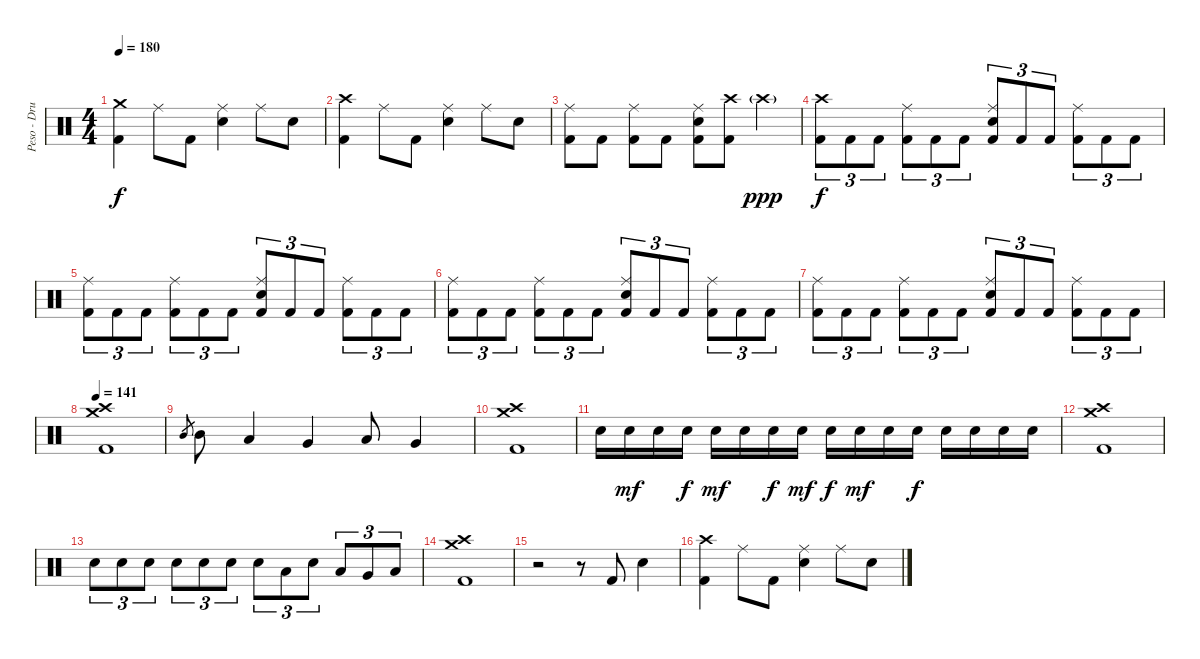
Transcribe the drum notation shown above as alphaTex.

\track ("Peso - Drums" "Peso - Dru") {instrument percussion}
\staff {score}
\articulation defaults
\ts (4 4)
\tempo 180
\clef neutral
\ks c
("Crash medium (hit)" "Kick (hit) 2").4{dy f} "Ride (middle)".8 "Kick (hit) 2".8 ("Ride (middle)" "Electric Snare (hit)").4 "Ride (middle)".8 "Electric Snare (hit)".8 |
("Crash high (hit)" "Kick (hit) 2").4 "Ride (middle)".8 "Kick (hit) 2".8 ("Ride (middle)" "Electric Snare (hit)").4 "Ride (middle)".8 "Electric Snare (hit)".8 |
("Ride (middle)" "Kick (hit) 2").8 "Kick (hit) 2".8 ("Ride (middle)" "Kick (hit) 2").8 "Kick (hit) 2".8 ("Ride (middle)" "Electric Snare (hit)" "Kick (hit) 2").8 ("Crash high (hit)" "Kick (hit) 2").8 "Crash high (hit)"{g}.4{dy ppp} |
("Crash high (hit)" "Kick (hit) 2").8{tu (3 2) dy f} "Kick (hit) 2".8{tu (3 2)} "Kick (hit) 2".8{tu (3 2)} ("Ride (middle)" "Kick (hit) 2").8{tu (3 2)} "Kick (hit) 2".8{tu (3 2)} "Kick (hit) 2".8{tu (3 2)} ("Ride (middle)" "Electric Snare (hit)" "Kick (hit) 2").8{tu (3 2)} "Kick (hit) 2".8{tu (3 2)} "Kick (hit) 2".8{tu (3 2)} ("Ride (middle)" "Kick (hit) 2").8{tu (3 2)} "Kick (hit) 2".8{tu (3 2)} "Kick (hit) 2".8{tu (3 2)} |
("Ride (middle)" "Kick (hit) 2").8{tu (3 2)} "Kick (hit) 2".8{tu (3 2)} "Kick (hit) 2".8{tu (3 2)} ("Ride (middle)" "Kick (hit) 2").8{tu (3 2)} "Kick (hit) 2".8{tu (3 2)} "Kick (hit) 2".8{tu (3 2)} ("Ride (middle)" "Electric Snare (hit)" "Kick (hit) 2").8{tu (3 2)} "Kick (hit) 2".8{tu (3 2)} "Kick (hit) 2".8{tu (3 2)} ("Ride (middle)" "Kick (hit) 2").8{tu (3 2)} "Kick (hit) 2".8{tu (3 2)} "Kick (hit) 2".8{tu (3 2)} |
("Ride (middle)" "Kick (hit) 2").8{tu (3 2)} "Kick (hit) 2".8{tu (3 2)} "Kick (hit) 2".8{tu (3 2)} ("Ride (middle)" "Kick (hit) 2").8{tu (3 2)} "Kick (hit) 2".8{tu (3 2)} "Kick (hit) 2".8{tu (3 2)} ("Ride (middle)" "Electric Snare (hit)" "Kick (hit) 2").8{tu (3 2)} "Kick (hit) 2".8{tu (3 2)} "Kick (hit) 2".8{tu (3 2)} ("Ride (middle)" "Kick (hit) 2").8{tu (3 2)} "Kick (hit) 2".8{tu (3 2)} "Kick (hit) 2".8{tu (3 2)} |
("Ride (middle)" "Kick (hit) 2").8{tu (3 2)} "Kick (hit) 2".8{tu (3 2)} "Kick (hit) 2".8{tu (3 2)} ("Ride (middle)" "Kick (hit) 2").8{tu (3 2)} "Kick (hit) 2".8{tu (3 2)} "Kick (hit) 2".8{tu (3 2)} ("Ride (middle)" "Electric Snare (hit)" "Kick (hit) 2").8{tu (3 2)} "Kick (hit) 2".8{tu (3 2)} "Kick (hit) 2".8{tu (3 2)} ("Ride (middle)" "Kick (hit) 2").8{tu (3 2)} "Kick (hit) 2".8{tu (3 2)} "Kick (hit) 2".8{tu (3 2)} |
\tempo 141
("Crash medium (hit)" "Crash high (hit)" "Kick (hit) 2").1 |
"Mid Tom (hit)".8{gr} "Mid Tom (hit)".8 "Low Tom (hit)".4 "Very Low Tom (hit)".4 "Low Floor Tom (hit)".8 "Very Low Tom (hit)".4 |
("Crash medium (hit)" "Crash high (hit)" "Kick (hit) 2").1 |
"Electric Snare (hit)".16 "Electric Snare (hit)".16{dy mf} "Electric Snare (hit)".16 "Electric Snare (hit)".16{dy f} "Electric Snare (hit)".16{dy mf} "Electric Snare (hit)".16 "Electric Snare (hit)".16{dy f} "Electric Snare (hit)".16{dy mf} "Electric Snare (hit)".16{dy f} "Electric Snare (hit)".16{dy mf} "Electric Snare (hit)".16 "Electric Snare (hit)".16{dy f} "Electric Snare (hit)".16 "Electric Snare (hit)".16 "Electric Snare (hit)".16 "Electric Snare (hit)".16 |
("Crash medium (hit)" "Crash high (hit)" "Kick (hit) 2").1 |
"Electric Snare (hit)".8{tu (3 2)} "Electric Snare (hit)".8{tu (3 2)} "Electric Snare (hit)".8{tu (3 2)} "Electric Snare (hit)".8{tu (3 2)} "Electric Snare (hit)".8{tu (3 2)} "Electric Snare (hit)".8{tu (3 2)} "Electric Snare (hit)".8{tu (3 2)} "Low Tom (hit)".8{tu (3 2)} "Electric Snare (hit)".8{tu (3 2)} "Low Tom (hit)".8{tu (3 2)} "Very Low Tom (hit)".8{tu (3 2)} "Low Floor Tom (hit)".8{tu (3 2)} |
("Crash medium (hit)" "Crash high (hit)" "Kick (hit) 2").1 |
r.2 r.8 "Kick (hit) 2".8 "Electric Snare (hit)".4 |
("Crash high (hit)" "Kick (hit) 2").4 "Ride (middle)".8 "Kick (hit) 2".8 ("Ride (middle)" "Electric Snare (hit)").4 "Ride (middle)".8 "Electric Snare (hit)".8
